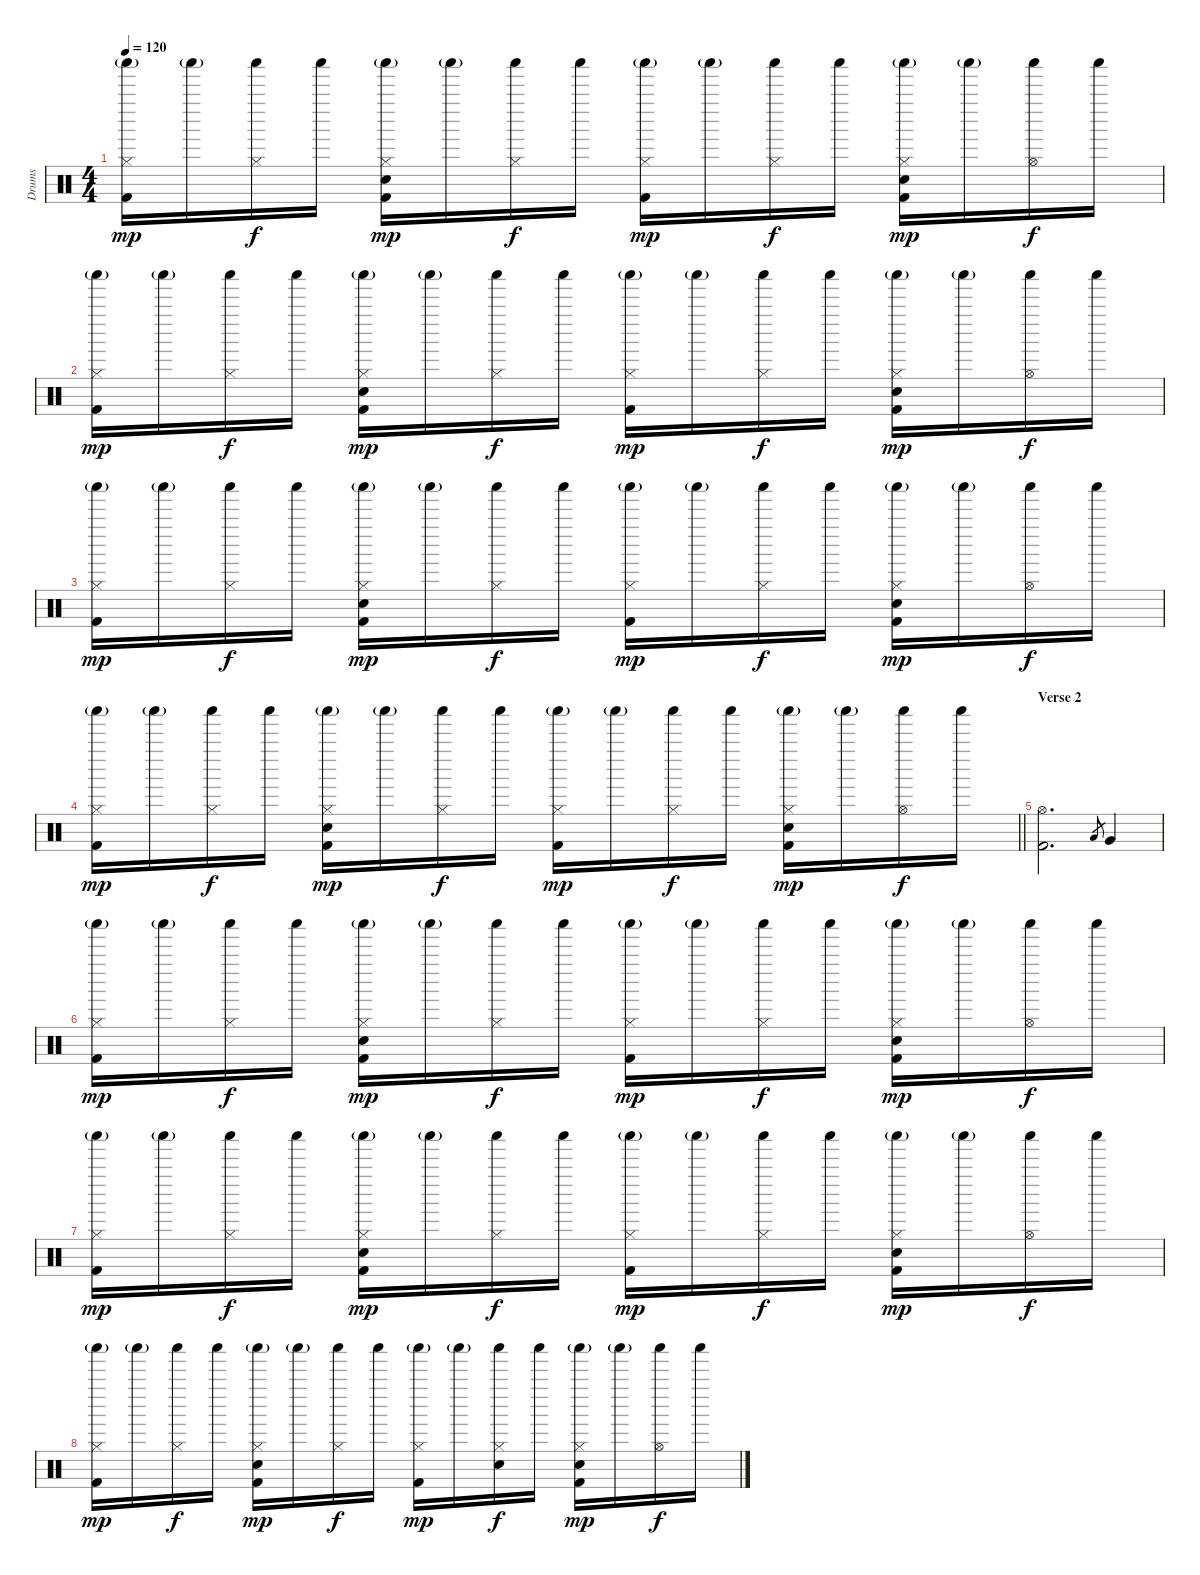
\track ("Drums" "Drums") {instrument percussion}
\staff {score}
\articulation defaults
\ts (4 4)
\tempo 120
\clef neutral
\ks c
("Hi-Hat (closed)" "Shaker (hit)"{g} "Kick (hit) 2").16{dy mp} "Shaker (hit)"{g}.16 ("Hi-Hat (closed)" "Shaker (hit)").16{dy f} "Shaker (hit)".16 ("Hi-Hat (closed)" "Shaker (hit)"{g} "Electric Snare (hit)" "Kick (hit) 2").16{dy mp} "Shaker (hit)"{g}.16 ("Hi-Hat (closed)" "Shaker (hit)").16{dy f} "Shaker (hit)".16 ("Hi-Hat (closed)" "Shaker (hit)"{g} "Kick (hit) 2").16{dy mp} "Shaker (hit)"{g}.16 ("Hi-Hat (closed)" "Shaker (hit)").16{dy f} "Shaker (hit)".16 ("Hi-Hat (closed)" "Shaker (hit)"{g} "Electric Snare (hit)" "Kick (hit) 2").16{dy mp} "Shaker (hit)"{g}.16 ("Hi-Hat (open)" "Shaker (hit)").16{dy f} "Shaker (hit)".16 |
("Hi-Hat (closed)" "Shaker (hit)"{g} "Kick (hit) 2").16{dy mp} "Shaker (hit)"{g}.16 ("Hi-Hat (closed)" "Shaker (hit)").16{dy f} "Shaker (hit)".16 ("Hi-Hat (closed)" "Shaker (hit)"{g} "Electric Snare (hit)" "Kick (hit) 2").16{dy mp} "Shaker (hit)"{g}.16 ("Hi-Hat (closed)" "Shaker (hit)").16{dy f} "Shaker (hit)".16 ("Hi-Hat (closed)" "Shaker (hit)"{g} "Kick (hit) 2").16{dy mp} "Shaker (hit)"{g}.16 ("Hi-Hat (closed)" "Shaker (hit)").16{dy f} "Shaker (hit)".16 ("Hi-Hat (closed)" "Shaker (hit)"{g} "Electric Snare (hit)" "Kick (hit) 2").16{dy mp} "Shaker (hit)"{g}.16 ("Hi-Hat (open)" "Shaker (hit)").16{dy f} "Shaker (hit)".16 |
("Hi-Hat (closed)" "Shaker (hit)"{g} "Kick (hit) 2").16{dy mp} "Shaker (hit)"{g}.16 ("Hi-Hat (closed)" "Shaker (hit)").16{dy f} "Shaker (hit)".16 ("Hi-Hat (closed)" "Shaker (hit)"{g} "Electric Snare (hit)" "Kick (hit) 2").16{dy mp} "Shaker (hit)"{g}.16 ("Hi-Hat (closed)" "Shaker (hit)").16{dy f} "Shaker (hit)".16 ("Hi-Hat (closed)" "Shaker (hit)"{g} "Kick (hit) 2").16{dy mp} "Shaker (hit)"{g}.16 ("Hi-Hat (closed)" "Shaker (hit)").16{dy f} "Shaker (hit)".16 ("Hi-Hat (closed)" "Shaker (hit)"{g} "Electric Snare (hit)" "Kick (hit) 2").16{dy mp} "Shaker (hit)"{g}.16 ("Hi-Hat (open)" "Shaker (hit)").16{dy f} "Shaker (hit)".16 |
\barLineRight lightlight
("Hi-Hat (closed)" "Shaker (hit)"{g} "Kick (hit) 2").16{dy mp} "Shaker (hit)"{g}.16 ("Hi-Hat (closed)" "Shaker (hit)").16{dy f} "Shaker (hit)".16 ("Hi-Hat (closed)" "Shaker (hit)"{g} "Electric Snare (hit)" "Kick (hit) 2").16{dy mp} "Shaker (hit)"{g}.16 ("Hi-Hat (closed)" "Shaker (hit)").16{dy f} "Shaker (hit)".16 ("Hi-Hat (closed)" "Shaker (hit)"{g} "Kick (hit) 2").16{dy mp} "Shaker (hit)"{g}.16 ("Hi-Hat (closed)" "Shaker (hit)").16{dy f} "Shaker (hit)".16 ("Hi-Hat (closed)" "Shaker (hit)"{g} "Electric Snare (hit)" "Kick (hit) 2").16{dy mp} "Shaker (hit)"{g}.16 ("Hi-Hat (open)" "Shaker (hit)").16{dy f} "Shaker (hit)".16 |
\section ("" "Verse 2")
("Hi-Hat (open)" "Kick (hit) 2").2{d} "Low Tom (hit)".8{gr} "Very Low Tom (hit)".4 |
("Hi-Hat (closed)" "Shaker (hit)"{g} "Kick (hit) 2").16{dy mp} "Shaker (hit)"{g}.16 ("Hi-Hat (closed)" "Shaker (hit)").16{dy f} "Shaker (hit)".16 ("Hi-Hat (closed)" "Shaker (hit)"{g} "Electric Snare (hit)" "Kick (hit) 2").16{dy mp} "Shaker (hit)"{g}.16 ("Hi-Hat (closed)" "Shaker (hit)").16{dy f} "Shaker (hit)".16 ("Hi-Hat (closed)" "Shaker (hit)"{g} "Kick (hit) 2").16{dy mp} "Shaker (hit)"{g}.16 ("Hi-Hat (closed)" "Shaker (hit)").16{dy f} "Shaker (hit)".16 ("Hi-Hat (closed)" "Shaker (hit)"{g} "Electric Snare (hit)" "Kick (hit) 2").16{dy mp} "Shaker (hit)"{g}.16 ("Hi-Hat (open)" "Shaker (hit)").16{dy f} "Shaker (hit)".16 |
("Hi-Hat (closed)" "Shaker (hit)"{g} "Kick (hit) 2").16{dy mp} "Shaker (hit)"{g}.16 ("Hi-Hat (closed)" "Shaker (hit)").16{dy f} "Shaker (hit)".16 ("Hi-Hat (closed)" "Shaker (hit)"{g} "Electric Snare (hit)" "Kick (hit) 2").16{dy mp} "Shaker (hit)"{g}.16 ("Hi-Hat (closed)" "Shaker (hit)").16{dy f} "Shaker (hit)".16 ("Hi-Hat (closed)" "Shaker (hit)"{g} "Kick (hit) 2").16{dy mp} "Shaker (hit)"{g}.16 ("Hi-Hat (closed)" "Shaker (hit)").16{dy f} "Shaker (hit)".16 ("Hi-Hat (closed)" "Shaker (hit)"{g} "Electric Snare (hit)" "Kick (hit) 2").16{dy mp} "Shaker (hit)"{g}.16 ("Hi-Hat (open)" "Shaker (hit)").16{dy f} "Shaker (hit)".16 |
("Hi-Hat (closed)" "Shaker (hit)"{g} "Kick (hit) 2").16{dy mp} "Shaker (hit)"{g}.16 ("Hi-Hat (closed)" "Shaker (hit)").16{dy f} "Shaker (hit)".16 ("Hi-Hat (closed)" "Shaker (hit)"{g} "Electric Snare (hit)" "Kick (hit) 2").16{dy mp} "Shaker (hit)"{g}.16 ("Hi-Hat (closed)" "Shaker (hit)").16{dy f} "Shaker (hit)".16 ("Hi-Hat (closed)" "Shaker (hit)"{g} "Kick (hit) 2").16{dy mp} "Shaker (hit)"{g}.16 ("Hi-Hat (closed)" "Shaker (hit)" "Electric Snare (hit)").16{dy f} "Shaker (hit)".16 ("Hi-Hat (closed)" "Shaker (hit)"{g} "Electric Snare (hit)" "Kick (hit) 2").16{dy mp} "Shaker (hit)"{g}.16 ("Hi-Hat (open)" "Shaker (hit)").16{dy f} "Shaker (hit)".16
